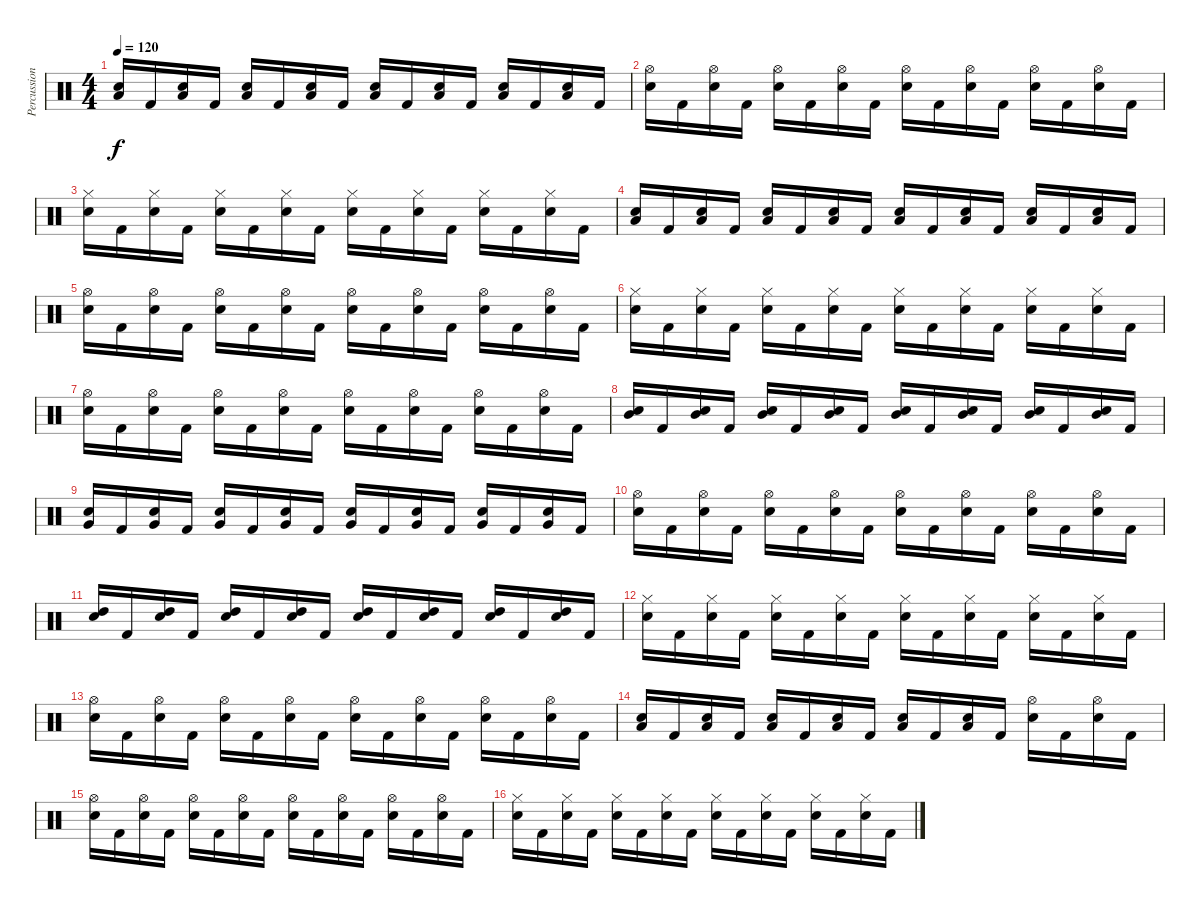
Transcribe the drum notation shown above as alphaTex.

\track ("Percussions" "Percussion") {instrument percussion}
\staff {score}
\articulation defaults
\ts (4 4)
\tempo 120
\clef neutral
\ks c
("Low Tom (hit)" "Electric Snare (hit)").16{dy f} "Kick (hit) 2".16 ("Low Tom (hit)" "Electric Snare (hit)").16 "Kick (hit) 2".16 ("Low Tom (hit)" "Electric Snare (hit)").16 "Kick (hit) 2".16 ("Low Tom (hit)" "Electric Snare (hit)").16 "Kick (hit) 2".16 ("Low Tom (hit)" "Electric Snare (hit)").16 "Kick (hit) 2".16 ("Low Tom (hit)" "Electric Snare (hit)").16 "Kick (hit) 2".16 ("Low Tom (hit)" "Electric Snare (hit)").16 "Kick (hit) 2".16 ("Low Tom (hit)" "Electric Snare (hit)").16 "Kick (hit) 2".16 |
("Hi-Hat (open)" "Electric Snare (hit)").16 "Kick (hit) 2".16 ("Hi-Hat (open)" "Electric Snare (hit)").16 "Kick (hit) 2".16 ("Hi-Hat (open)" "Electric Snare (hit)").16 "Kick (hit) 2".16 ("Hi-Hat (open)" "Electric Snare (hit)").16 "Kick (hit) 2".16 ("Hi-Hat (open)" "Electric Snare (hit)").16 "Kick (hit) 2".16 ("Hi-Hat (open)" "Electric Snare (hit)").16 "Kick (hit) 2".16 ("Hi-Hat (open)" "Electric Snare (hit)").16 "Kick (hit) 2".16 ("Hi-Hat (open)" "Electric Snare (hit)").16 "Kick (hit) 2".16 |
("Hi-Hat (closed)" "Electric Snare (hit)").16 "Kick (hit) 2".16 ("Hi-Hat (closed)" "Electric Snare (hit)").16 "Kick (hit) 2".16 ("Hi-Hat (closed)" "Electric Snare (hit)").16 "Kick (hit) 2".16 ("Hi-Hat (closed)" "Electric Snare (hit)").16 "Kick (hit) 2".16 ("Hi-Hat (closed)" "Electric Snare (hit)").16 "Kick (hit) 2".16 ("Hi-Hat (closed)" "Electric Snare (hit)").16 "Kick (hit) 2".16 ("Hi-Hat (closed)" "Electric Snare (hit)").16 "Kick (hit) 2".16 ("Hi-Hat (closed)" "Electric Snare (hit)").16 "Kick (hit) 2".16 |
("Low Tom (hit)" "Electric Snare (hit)").16 "Kick (hit) 2".16 ("Low Tom (hit)" "Electric Snare (hit)").16 "Kick (hit) 2".16 ("Low Tom (hit)" "Electric Snare (hit)").16 "Kick (hit) 2".16 ("Low Tom (hit)" "Electric Snare (hit)").16 "Kick (hit) 2".16 ("Low Tom (hit)" "Electric Snare (hit)").16 "Kick (hit) 2".16 ("Low Tom (hit)" "Electric Snare (hit)").16 "Kick (hit) 2".16 ("Low Tom (hit)" "Electric Snare (hit)").16 "Kick (hit) 2".16 ("Low Tom (hit)" "Electric Snare (hit)").16 "Kick (hit) 2".16 |
("Hi-Hat (open)" "Electric Snare (hit)").16 "Kick (hit) 2".16 ("Hi-Hat (open)" "Electric Snare (hit)").16 "Kick (hit) 2".16 ("Hi-Hat (open)" "Electric Snare (hit)").16 "Kick (hit) 2".16 ("Hi-Hat (open)" "Electric Snare (hit)").16 "Kick (hit) 2".16 ("Hi-Hat (open)" "Electric Snare (hit)").16 "Kick (hit) 2".16 ("Hi-Hat (open)" "Electric Snare (hit)").16 "Kick (hit) 2".16 ("Hi-Hat (open)" "Electric Snare (hit)").16 "Kick (hit) 2".16 ("Hi-Hat (open)" "Electric Snare (hit)").16 "Kick (hit) 2".16 |
("Hi-Hat (closed)" "Electric Snare (hit)").16 "Kick (hit) 2".16 ("Hi-Hat (closed)" "Electric Snare (hit)").16 "Kick (hit) 2".16 ("Hi-Hat (closed)" "Electric Snare (hit)").16 "Kick (hit) 2".16 ("Hi-Hat (closed)" "Electric Snare (hit)").16 "Kick (hit) 2".16 ("Hi-Hat (closed)" "Electric Snare (hit)").16 "Kick (hit) 2".16 ("Hi-Hat (closed)" "Electric Snare (hit)").16 "Kick (hit) 2".16 ("Hi-Hat (closed)" "Electric Snare (hit)").16 "Kick (hit) 2".16 ("Hi-Hat (closed)" "Electric Snare (hit)").16 "Kick (hit) 2".16 |
("Hi-Hat (open)" "Electric Snare (hit)").16 "Kick (hit) 2".16 ("Hi-Hat (open)" "Electric Snare (hit)").16 "Kick (hit) 2".16 ("Hi-Hat (open)" "Electric Snare (hit)").16 "Kick (hit) 2".16 ("Hi-Hat (open)" "Electric Snare (hit)").16 "Kick (hit) 2".16 ("Hi-Hat (open)" "Electric Snare (hit)").16 "Kick (hit) 2".16 ("Hi-Hat (open)" "Electric Snare (hit)").16 "Kick (hit) 2".16 ("Hi-Hat (open)" "Electric Snare (hit)").16 "Kick (hit) 2".16 ("Hi-Hat (open)" "Electric Snare (hit)").16 "Kick (hit) 2".16 |
("Mid Tom (hit)" "Electric Snare (hit)").16 "Kick (hit) 2".16 ("Mid Tom (hit)" "Electric Snare (hit)").16 "Kick (hit) 2".16 ("Mid Tom (hit)" "Electric Snare (hit)").16 "Kick (hit) 2".16 ("Mid Tom (hit)" "Electric Snare (hit)").16 "Kick (hit) 2".16 ("Mid Tom (hit)" "Electric Snare (hit)").16 "Kick (hit) 2".16 ("Mid Tom (hit)" "Electric Snare (hit)").16 "Kick (hit) 2".16 ("Mid Tom (hit)" "Electric Snare (hit)").16 "Kick (hit) 2".16 ("Mid Tom (hit)" "Electric Snare (hit)").16 "Kick (hit) 2".16 |
("Very Low Tom (hit)" "Electric Snare (hit)").16 "Kick (hit) 2".16 ("Very Low Tom (hit)" "Electric Snare (hit)").16 "Kick (hit) 2".16 ("Very Low Tom (hit)" "Electric Snare (hit)").16 "Kick (hit) 2".16 ("Very Low Tom (hit)" "Electric Snare (hit)").16 "Kick (hit) 2".16 ("Very Low Tom (hit)" "Electric Snare (hit)").16 "Kick (hit) 2".16 ("Very Low Tom (hit)" "Electric Snare (hit)").16 "Kick (hit) 2".16 ("Very Low Tom (hit)" "Electric Snare (hit)").16 "Kick (hit) 2".16 ("Very Low Tom (hit)" "Electric Snare (hit)").16 "Kick (hit) 2".16 |
("Hi-Hat (open)" "Electric Snare (hit)").16 "Kick (hit) 2".16 ("Hi-Hat (open)" "Electric Snare (hit)").16 "Kick (hit) 2".16 ("Hi-Hat (open)" "Electric Snare (hit)").16 "Kick (hit) 2".16 ("Hi-Hat (open)" "Electric Snare (hit)").16 "Kick (hit) 2".16 ("Hi-Hat (open)" "Electric Snare (hit)").16 "Kick (hit) 2".16 ("Hi-Hat (open)" "Electric Snare (hit)").16 "Kick (hit) 2".16 ("Hi-Hat (open)" "Electric Snare (hit)").16 "Kick (hit) 2".16 ("Hi-Hat (open)" "Electric Snare (hit)").16 "Kick (hit) 2".16 |
("High Tom (hit)" "Electric Snare (hit)").16 "Kick (hit) 2".16 ("High Tom (hit)" "Electric Snare (hit)").16 "Kick (hit) 2".16 ("High Tom (hit)" "Electric Snare (hit)").16 "Kick (hit) 2".16 ("High Tom (hit)" "Electric Snare (hit)").16 "Kick (hit) 2".16 ("High Tom (hit)" "Electric Snare (hit)").16 "Kick (hit) 2".16 ("High Tom (hit)" "Electric Snare (hit)").16 "Kick (hit) 2".16 ("High Tom (hit)" "Electric Snare (hit)").16 "Kick (hit) 2".16 ("High Tom (hit)" "Electric Snare (hit)").16 "Kick (hit) 2".16 |
("Hi-Hat (closed)" "Electric Snare (hit)").16 "Kick (hit) 2".16 ("Hi-Hat (closed)" "Electric Snare (hit)").16 "Kick (hit) 2".16 ("Hi-Hat (closed)" "Electric Snare (hit)").16 "Kick (hit) 2".16 ("Hi-Hat (closed)" "Electric Snare (hit)").16 "Kick (hit) 2".16 ("Hi-Hat (closed)" "Electric Snare (hit)").16 "Kick (hit) 2".16 ("Hi-Hat (closed)" "Electric Snare (hit)").16 "Kick (hit) 2".16 ("Hi-Hat (closed)" "Electric Snare (hit)").16 "Kick (hit) 2".16 ("Hi-Hat (closed)" "Electric Snare (hit)").16 "Kick (hit) 2".16 |
("Hi-Hat (open)" "Electric Snare (hit)").16 "Kick (hit) 2".16 ("Hi-Hat (open)" "Electric Snare (hit)").16 "Kick (hit) 2".16 ("Hi-Hat (open)" "Electric Snare (hit)").16 "Kick (hit) 2".16 ("Hi-Hat (open)" "Electric Snare (hit)").16 "Kick (hit) 2".16 ("Hi-Hat (open)" "Electric Snare (hit)").16 "Kick (hit) 2".16 ("Hi-Hat (open)" "Electric Snare (hit)").16 "Kick (hit) 2".16 ("Hi-Hat (open)" "Electric Snare (hit)").16 "Kick (hit) 2".16 ("Hi-Hat (open)" "Electric Snare (hit)").16 "Kick (hit) 2".16 |
("Low Tom (hit)" "Electric Snare (hit)").16 "Kick (hit) 2".16 ("Low Tom (hit)" "Electric Snare (hit)").16 "Kick (hit) 2".16 ("Low Tom (hit)" "Electric Snare (hit)").16 "Kick (hit) 2".16 ("Low Tom (hit)" "Electric Snare (hit)").16 "Kick (hit) 2".16 ("Low Tom (hit)" "Electric Snare (hit)").16 "Kick (hit) 2".16 ("Low Tom (hit)" "Electric Snare (hit)").16 "Kick (hit) 2".16 ("Hi-Hat (open)" "Electric Snare (hit)").16 "Kick (hit) 2".16 ("Hi-Hat (open)" "Electric Snare (hit)").16 "Kick (hit) 2".16 |
("Hi-Hat (open)" "Electric Snare (hit)").16 "Kick (hit) 2".16 ("Hi-Hat (open)" "Electric Snare (hit)").16 "Kick (hit) 2".16 ("Hi-Hat (open)" "Electric Snare (hit)").16 "Kick (hit) 2".16 ("Hi-Hat (open)" "Electric Snare (hit)").16 "Kick (hit) 2".16 ("Hi-Hat (open)" "Electric Snare (hit)").16 "Kick (hit) 2".16 ("Hi-Hat (open)" "Electric Snare (hit)").16 "Kick (hit) 2".16 ("Hi-Hat (open)" "Electric Snare (hit)").16 "Kick (hit) 2".16 ("Hi-Hat (open)" "Electric Snare (hit)").16 "Kick (hit) 2".16 |
("Hi-Hat (closed)" "Electric Snare (hit)").16 "Kick (hit) 2".16 ("Hi-Hat (closed)" "Electric Snare (hit)").16 "Kick (hit) 2".16 ("Hi-Hat (closed)" "Electric Snare (hit)").16 "Kick (hit) 2".16 ("Hi-Hat (closed)" "Electric Snare (hit)").16 "Kick (hit) 2".16 ("Hi-Hat (closed)" "Electric Snare (hit)").16 "Kick (hit) 2".16 ("Hi-Hat (closed)" "Electric Snare (hit)").16 "Kick (hit) 2".16 ("Hi-Hat (closed)" "Electric Snare (hit)").16 "Kick (hit) 2".16 ("Hi-Hat (closed)" "Electric Snare (hit)").16 "Kick (hit) 2".16
